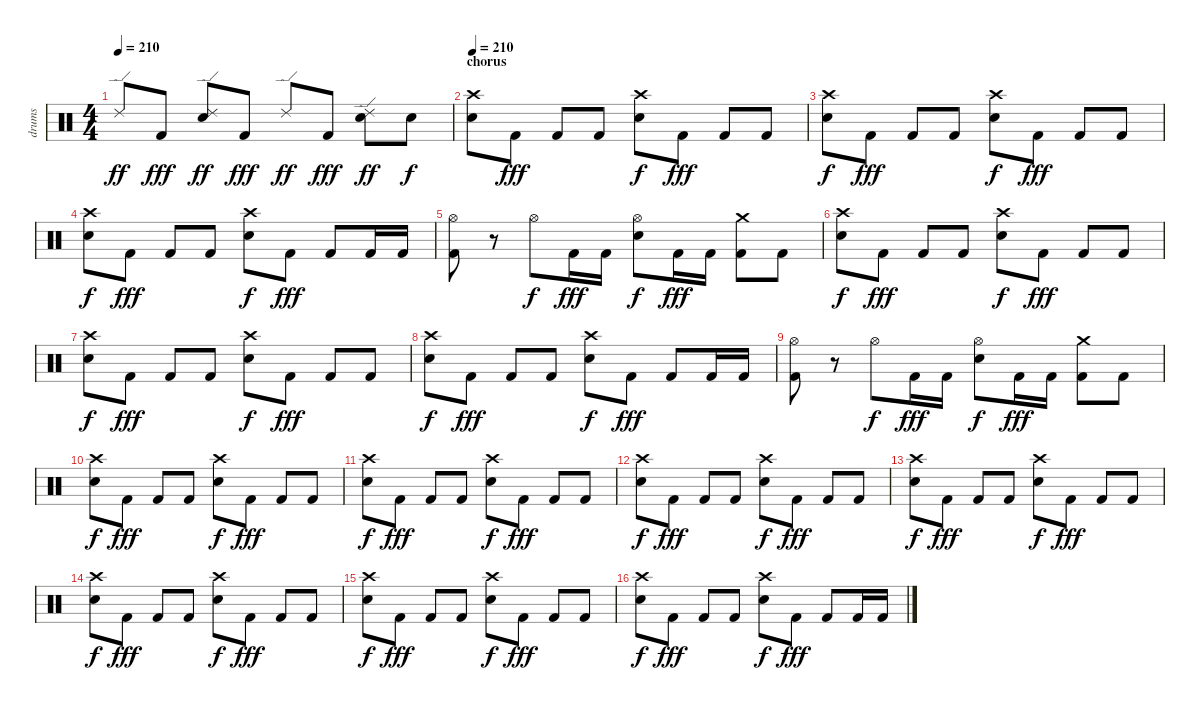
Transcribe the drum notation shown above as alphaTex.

\track ("drums" "drums") {instrument percussion}
\staff {score}
\articulation defaults
\ts (4 4)
\tempo 210
\clef neutral
\ks c "Ride (edge) 2".8{dy ff} "Kick (hit) 2".8{dy fff}
("Ride (edge) 2" "Snare (hit) 2").8{dy ff} "Kick (hit) 2".8{dy fff} "Ride (edge) 2".8{dy ff} "Kick (hit) 2".8{dy fff} ("Ride (edge) 2" "Snare (hit) 2").8{dy ff} "Snare (hit) 2".8{dy f} |
\section ("" "chorus")
\tempo 210
("Crash high (hit)" "Snare (hit) 2").8 "Kick (hit) 2".8{dy fff} "Kick (hit) 2".8 "Kick (hit) 2".8 ("Crash high (hit)" "Snare (hit) 2").8{dy f} "Kick (hit) 2".8{dy fff} "Kick (hit) 2".8 "Kick (hit) 2".8 |
("Crash high (hit)" "Snare (hit) 2").8{dy f} "Kick (hit) 2".8{dy fff} "Kick (hit) 2".8 "Kick (hit) 2".8 ("Crash high (hit)" "Snare (hit) 2").8{dy f} "Kick (hit) 2".8{dy fff} "Kick (hit) 2".8 "Kick (hit) 2".8 |
("Crash high (hit)" "Snare (hit) 2").8{dy f} "Kick (hit) 2".8{dy fff} "Kick (hit) 2".8 "Kick (hit) 2".8 ("Crash high (hit)" "Snare (hit) 2").8{dy f} "Kick (hit) 2".8{dy fff} "Kick (hit) 2".8 "Kick (hit) 2".16 "Kick (hit) 2".16 |
("Hi-Hat (open)" "Kick (hit) 2").8 r.8 "Hi-Hat (open)".8{dy f} "Kick (hit) 2".16{dy fff} "Kick (hit) 2".16 ("Hi-Hat (open)" "Snare (hit) 2").8{dy f} "Kick (hit) 2".16{dy fff} "Kick (hit) 2".16 ("Crash medium (hit)" "Kick (hit) 2").8 "Kick (hit) 2".8 |
("Crash high (hit)" "Snare (hit) 2").8{dy f} "Kick (hit) 2".8{dy fff} "Kick (hit) 2".8 "Kick (hit) 2".8 ("Crash high (hit)" "Snare (hit) 2").8{dy f} "Kick (hit) 2".8{dy fff} "Kick (hit) 2".8 "Kick (hit) 2".8 |
("Crash high (hit)" "Snare (hit) 2").8{dy f} "Kick (hit) 2".8{dy fff} "Kick (hit) 2".8 "Kick (hit) 2".8 ("Crash high (hit)" "Snare (hit) 2").8{dy f} "Kick (hit) 2".8{dy fff} "Kick (hit) 2".8 "Kick (hit) 2".8 |
("Crash high (hit)" "Snare (hit) 2").8{dy f} "Kick (hit) 2".8{dy fff} "Kick (hit) 2".8 "Kick (hit) 2".8 ("Crash high (hit)" "Snare (hit) 2").8{dy f} "Kick (hit) 2".8{dy fff} "Kick (hit) 2".8 "Kick (hit) 2".16 "Kick (hit) 2".16 |
("Hi-Hat (open)" "Kick (hit) 2").8 r.8 "Hi-Hat (open)".8{dy f} "Kick (hit) 2".16{dy fff} "Kick (hit) 2".16 ("Hi-Hat (open)" "Snare (hit) 2").8{dy f} "Kick (hit) 2".16{dy fff} "Kick (hit) 2".16 ("Crash medium (hit)" "Kick (hit) 2").8 "Kick (hit) 2".8 |
("Crash high (hit)" "Snare (hit) 2").8{dy f} "Kick (hit) 2".8{dy fff} "Kick (hit) 2".8 "Kick (hit) 2".8 ("Crash high (hit)" "Snare (hit) 2").8{dy f} "Kick (hit) 2".8{dy fff} "Kick (hit) 2".8 "Kick (hit) 2".8 |
("Crash high (hit)" "Snare (hit) 2").8{dy f} "Kick (hit) 2".8{dy fff} "Kick (hit) 2".8 "Kick (hit) 2".8 ("Crash high (hit)" "Snare (hit) 2").8{dy f} "Kick (hit) 2".8{dy fff} "Kick (hit) 2".8 "Kick (hit) 2".8 |
("Crash high (hit)" "Snare (hit) 2").8{dy f} "Kick (hit) 2".8{dy fff} "Kick (hit) 2".8 "Kick (hit) 2".8 ("Crash high (hit)" "Snare (hit) 2").8{dy f} "Kick (hit) 2".8{dy fff} "Kick (hit) 2".8 "Kick (hit) 2".8 |
("Crash high (hit)" "Snare (hit) 2").8{dy f} "Kick (hit) 2".8{dy fff} "Kick (hit) 2".8 "Kick (hit) 2".8 ("Crash high (hit)" "Snare (hit) 2").8{dy f} "Kick (hit) 2".8{dy fff} "Kick (hit) 2".8 "Kick (hit) 2".8 |
("Crash high (hit)" "Snare (hit) 2").8{dy f} "Kick (hit) 2".8{dy fff} "Kick (hit) 2".8 "Kick (hit) 2".8 ("Crash high (hit)" "Snare (hit) 2").8{dy f} "Kick (hit) 2".8{dy fff} "Kick (hit) 2".8 "Kick (hit) 2".8 |
("Crash high (hit)" "Snare (hit) 2").8{dy f} "Kick (hit) 2".8{dy fff} "Kick (hit) 2".8 "Kick (hit) 2".8 ("Crash high (hit)" "Snare (hit) 2").8{dy f} "Kick (hit) 2".8{dy fff} "Kick (hit) 2".8 "Kick (hit) 2".8 |
("Crash high (hit)" "Snare (hit) 2").8{dy f} "Kick (hit) 2".8{dy fff} "Kick (hit) 2".8 "Kick (hit) 2".8 ("Crash high (hit)" "Snare (hit) 2").8{dy f} "Kick (hit) 2".8{dy fff} "Kick (hit) 2".8 "Kick (hit) 2".16 "Kick (hit) 2".16
